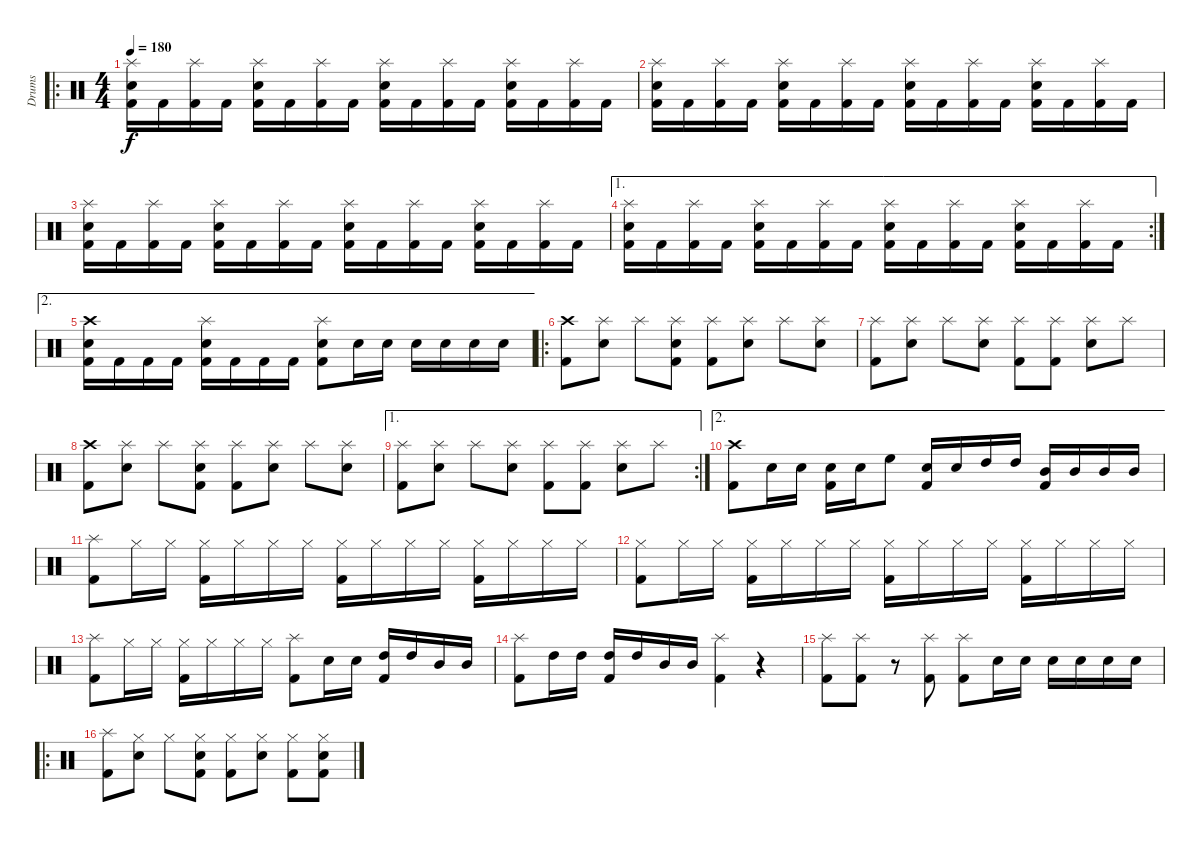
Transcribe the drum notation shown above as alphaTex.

\track ("Drums" "Drums") {instrument percussion}
\staff {score}
\articulation defaults
\ro
\ts (4 4)
\tempo 180
\clef neutral
\ks c
("Splash (hit)" "Snare (hit) 2" "Kick (hit) 2").16{dy f} "Kick (hit) 2".16 ("Splash (hit)" "Kick (hit) 2").16 "Kick (hit) 2".16 ("Splash (hit)" "Snare (hit) 2" "Kick (hit) 2").16 "Kick (hit) 2".16 ("Splash (hit)" "Kick (hit) 2").16 "Kick (hit) 2".16 ("Splash (hit)" "Snare (hit) 2" "Kick (hit) 2").16 "Kick (hit) 2".16 ("Splash (hit)" "Kick (hit) 2").16 "Kick (hit) 2".16 ("Splash (hit)" "Snare (hit) 2" "Kick (hit) 2").16 "Kick (hit) 2".16 ("Splash (hit)" "Kick (hit) 2").16 "Kick (hit) 2".16 |
("Splash (hit)" "Snare (hit) 2" "Kick (hit) 2").16 "Kick (hit) 2".16 ("Splash (hit)" "Kick (hit) 2").16 "Kick (hit) 2".16 ("Splash (hit)" "Snare (hit) 2" "Kick (hit) 2").16 "Kick (hit) 2".16 ("Splash (hit)" "Kick (hit) 2").16 "Kick (hit) 2".16 ("Splash (hit)" "Snare (hit) 2" "Kick (hit) 2").16 "Kick (hit) 2".16 ("Splash (hit)" "Kick (hit) 2").16 "Kick (hit) 2".16 ("Splash (hit)" "Snare (hit) 2" "Kick (hit) 2").16 "Kick (hit) 2".16 ("Splash (hit)" "Kick (hit) 2").16 "Kick (hit) 2".16 |
("Splash (hit)" "Snare (hit) 2" "Kick (hit) 2").16 "Kick (hit) 2".16 ("Splash (hit)" "Kick (hit) 2").16 "Kick (hit) 2".16 ("Splash (hit)" "Snare (hit) 2" "Kick (hit) 2").16 "Kick (hit) 2".16 ("Splash (hit)" "Kick (hit) 2").16 "Kick (hit) 2".16 ("Splash (hit)" "Snare (hit) 2" "Kick (hit) 2").16 "Kick (hit) 2".16 ("Splash (hit)" "Kick (hit) 2").16 "Kick (hit) 2".16 ("Splash (hit)" "Snare (hit) 2" "Kick (hit) 2").16 "Kick (hit) 2".16 ("Splash (hit)" "Kick (hit) 2").16 "Kick (hit) 2".16 |
\ae 1
\rc 2
("Splash (hit)" "Snare (hit) 2" "Kick (hit) 2").16 "Kick (hit) 2".16 ("Splash (hit)" "Kick (hit) 2").16 "Kick (hit) 2".16 ("Splash (hit)" "Snare (hit) 2" "Kick (hit) 2").16 "Kick (hit) 2".16 ("Splash (hit)" "Kick (hit) 2").16 "Kick (hit) 2".16 ("Splash (hit)" "Snare (hit) 2" "Kick (hit) 2").16 "Kick (hit) 2".16 ("Splash (hit)" "Kick (hit) 2").16 "Kick (hit) 2".16 ("Splash (hit)" "Snare (hit) 2" "Kick (hit) 2").16 "Kick (hit) 2".16 ("Splash (hit)" "Kick (hit) 2").16 "Kick (hit) 2".16 |
\ae 2
("Crash high (hit)" "Snare (hit) 2" "Kick (hit) 2").16 "Kick (hit) 2".16 "Kick (hit) 2".16 "Kick (hit) 2".16 ("Splash (hit)" "Snare (hit) 2" "Kick (hit) 2").16 "Kick (hit) 2".16 "Kick (hit) 2".16 "Kick (hit) 2".16 ("Splash (hit)" "Snare (hit) 2" "Kick (hit) 2").8 "Snare (hit) 2".16 "Snare (hit) 2".16 "Snare (hit) 2".16 "Snare (hit) 2".16 "Snare (hit) 2".16 "Snare (hit) 2".16 |
\ro
("Crash high (hit)" "Kick (hit) 2").8 ("Splash (hit)" "Snare (hit) 2").8 "Splash (hit)".8 ("Splash (hit)" "Snare (hit) 2" "Kick (hit) 2").8 ("Splash (hit)" "Kick (hit) 2").8 ("Splash (hit)" "Snare (hit) 2").8 "Splash (hit)".8 ("Splash (hit)" "Snare (hit) 2").8 |
("Splash (hit)" "Kick (hit) 2").8 ("Splash (hit)" "Snare (hit) 2").8 "Splash (hit)".8 ("Splash (hit)" "Snare (hit) 2").8 ("Splash (hit)" "Kick (hit) 2").8 ("Splash (hit)" "Kick (hit) 2").8 ("Splash (hit)" "Snare (hit) 2").8 "Splash (hit)".8 |
("Crash high (hit)" "Kick (hit) 2").8 ("Splash (hit)" "Snare (hit) 2").8 "Splash (hit)".8 ("Splash (hit)" "Snare (hit) 2" "Kick (hit) 2").8 ("Splash (hit)" "Kick (hit) 2").8 ("Splash (hit)" "Snare (hit) 2").8 "Splash (hit)".8 ("Splash (hit)" "Snare (hit) 2").8 |
\ae 1
\rc 2
("Splash (hit)" "Kick (hit) 2").8 ("Splash (hit)" "Snare (hit) 2").8 "Splash (hit)".8 ("Splash (hit)" "Snare (hit) 2").8 ("Splash (hit)" "Kick (hit) 2").8 ("Splash (hit)" "Kick (hit) 2").8 ("Splash (hit)" "Snare (hit) 2").8 "Splash (hit)".8 |
\ae 2
("Crash high (hit)" "Kick (hit) 2").8 "Snare (hit) 2".16 "Snare (hit) 2".16 ("Snare (hit) 2" "Kick (hit) 2").16 "Snare (hit) 2".16 "High Floor Tom (hit)".8 ("Snare (hit) 2" "Kick (hit) 2").16 "Snare (hit) 2".16 "High Tom (hit)".16 "High Tom (hit)".16 ("Mid Tom (hit)" "Kick (hit) 2").16 "Mid Tom (hit)".16 "Mid Tom (hit)".16 "Mid Tom (hit)".16 |
("Splash (hit)" "Kick (hit) 2").8 "Hi-Hat (closed)".16 "Hi-Hat (closed)".16 ("Hi-Hat (closed)" "Kick (hit) 2").16 "Hi-Hat (closed)".16 "Hi-Hat (closed)".16 "Hi-Hat (closed)".16 ("Hi-Hat (closed)" "Kick (hit) 2").16 "Hi-Hat (closed)".16 "Hi-Hat (closed)".16 "Hi-Hat (closed)".16 ("Hi-Hat (closed)" "Kick (hit) 2").16 "Hi-Hat (closed)".16 "Hi-Hat (closed)".16 "Hi-Hat (closed)".16 |
("Hi-Hat (closed)" "Kick (hit) 2").8 "Hi-Hat (closed)".16 "Hi-Hat (closed)".16 ("Hi-Hat (closed)" "Kick (hit) 2").16 "Hi-Hat (closed)".16 "Hi-Hat (closed)".16 "Hi-Hat (closed)".16 ("Hi-Hat (closed)" "Kick (hit) 2").16 "Hi-Hat (closed)".16 "Hi-Hat (closed)".16 "Hi-Hat (closed)".16 ("Hi-Hat (closed)" "Kick (hit) 2").16 "Hi-Hat (closed)".16 "Hi-Hat (closed)".16 "Hi-Hat (closed)".16 |
("Splash (hit)" "Kick (hit) 2").8 "Hi-Hat (closed)".16 "Hi-Hat (closed)".16 ("Hi-Hat (closed)" "Kick (hit) 2").16 "Hi-Hat (closed)".16 "Hi-Hat (closed)".16 "Hi-Hat (closed)".16 ("Splash (hit)" "Kick (hit) 2").8 "Snare (hit) 2".16 "Snare (hit) 2".16 ("High Tom (hit)" "Kick (hit) 2").16 "High Tom (hit)".16 "Mid Tom (hit)".16 "Mid Tom (hit)".16 |
("Splash (hit)" "Kick (hit) 2").8 "High Tom (hit)".16 "High Tom (hit)".16 ("High Tom (hit)" "Kick (hit) 2").16 "High Tom (hit)".16 "Mid Tom (hit)".16 "Mid Tom (hit)".16 ("Splash (hit)" "Kick (hit) 2").4 r.4 |
("Splash (hit)" "Kick (hit) 2").8 ("Splash (hit)" "Kick (hit) 2").8 r.8 ("Splash (hit)" "Kick (hit) 2").8 ("Splash (hit)" "Kick (hit) 2").8 "Snare (hit) 2".16 "Snare (hit) 2".16 "Snare (hit) 2".16 "Snare (hit) 2".16 "Snare (hit) 2".16 "Snare (hit) 2".16 |
\ro
("Splash (hit)" "Kick (hit) 2").8 ("Hi-Hat (closed)" "Snare (hit) 2").8 "Hi-Hat (closed)".8 ("Hi-Hat (closed)" "Snare (hit) 2" "Kick (hit) 2").8 ("Hi-Hat (closed)" "Kick (hit) 2").8 ("Hi-Hat (closed)" "Snare (hit) 2").8 ("Hi-Hat (closed)" "Kick (hit) 2").8 ("Hi-Hat (closed)" "Snare (hit) 2" "Kick (hit) 2").8
